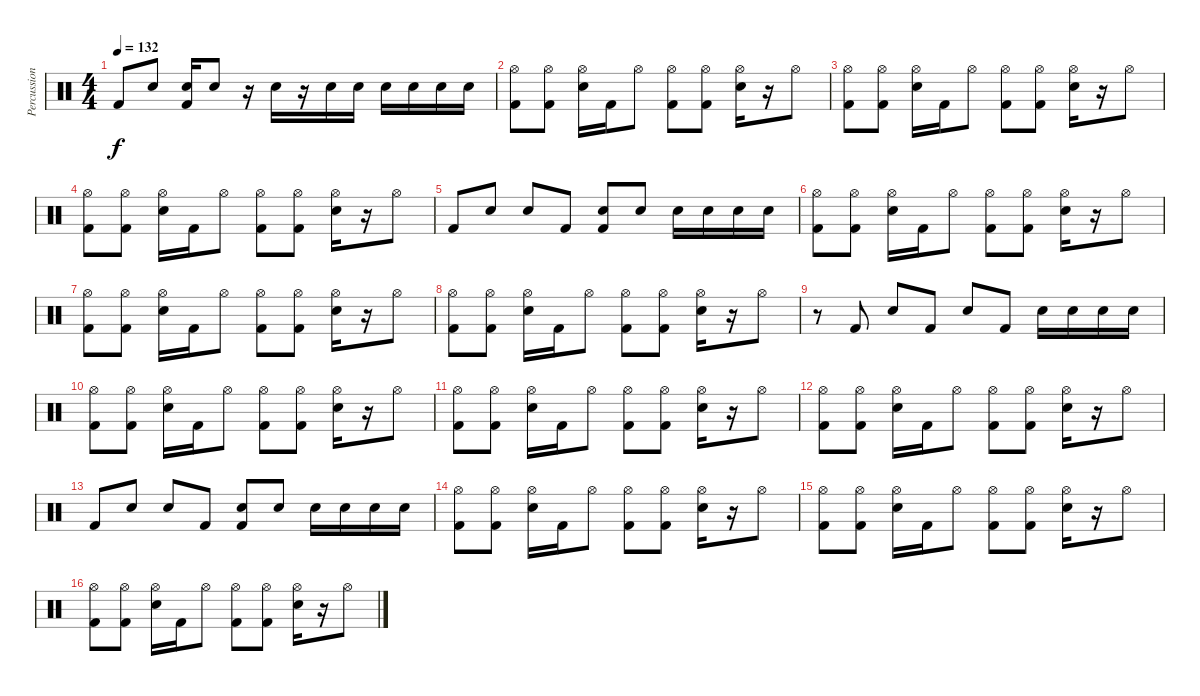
\track ("Percussion" "Percussion") {instrument percussion}
\staff {score}
\articulation defaults
\ts (4 4)
\tempo 132
\clef neutral
\ks c "Kick (hit) 2".8{dy f} "Snare (hit) 2".8
("Snare (hit) 2" "Kick (hit) 2").16 "Snare (hit) 2".8 r.16 "Snare (hit) 2".16 r.16 "Snare (hit) 2".16 "Snare (hit) 2".16 "Snare (hit) 2".16 "Snare (hit) 2".16 "Snare (hit) 2".16 "Snare (hit) 2".16 |
("Hi-Hat (open)" "Kick (hit) 2").8 ("Hi-Hat (open)" "Kick (hit) 2").8 ("Hi-Hat (open)" "Snare (hit) 2").16 "Kick (hit) 2".16 "Hi-Hat (open)".8 ("Hi-Hat (open)" "Kick (hit) 2").8 ("Hi-Hat (open)" "Kick (hit) 2").8 ("Hi-Hat (open)" "Snare (hit) 2").16 r.16 "Hi-Hat (open)".8 |
("Hi-Hat (open)" "Kick (hit) 2").8 ("Hi-Hat (open)" "Kick (hit) 2").8 ("Hi-Hat (open)" "Snare (hit) 2").16 "Kick (hit) 2".16 "Hi-Hat (open)".8 ("Hi-Hat (open)" "Kick (hit) 2").8 ("Hi-Hat (open)" "Kick (hit) 2").8 ("Hi-Hat (open)" "Snare (hit) 2").16 r.16 "Hi-Hat (open)".8 |
("Hi-Hat (open)" "Kick (hit) 2").8 ("Hi-Hat (open)" "Kick (hit) 2").8 ("Hi-Hat (open)" "Snare (hit) 2").16 "Kick (hit) 2".16 "Hi-Hat (open)".8 ("Hi-Hat (open)" "Kick (hit) 2").8 ("Hi-Hat (open)" "Kick (hit) 2").8 ("Hi-Hat (open)" "Snare (hit) 2").16 r.16 "Hi-Hat (open)".8 |
"Kick (hit) 2".8 "Snare (hit) 2".8 "Snare (hit) 2".8 "Kick (hit) 2".8 ("Snare (hit) 2" "Kick (hit) 2").8 "Snare (hit) 2".8 "Snare (hit) 2".16 "Snare (hit) 2".16 "Snare (hit) 2".16 "Snare (hit) 2".16 |
("Hi-Hat (open)" "Kick (hit) 2").8 ("Hi-Hat (open)" "Kick (hit) 2").8 ("Hi-Hat (open)" "Snare (hit) 2").16 "Kick (hit) 2".16 "Hi-Hat (open)".8 ("Hi-Hat (open)" "Kick (hit) 2").8 ("Hi-Hat (open)" "Kick (hit) 2").8 ("Hi-Hat (open)" "Snare (hit) 2").16 r.16 "Hi-Hat (open)".8 |
("Hi-Hat (open)" "Kick (hit) 2").8 ("Hi-Hat (open)" "Kick (hit) 2").8 ("Hi-Hat (open)" "Snare (hit) 2").16 "Kick (hit) 2".16 "Hi-Hat (open)".8 ("Hi-Hat (open)" "Kick (hit) 2").8 ("Hi-Hat (open)" "Kick (hit) 2").8 ("Hi-Hat (open)" "Snare (hit) 2").16 r.16 "Hi-Hat (open)".8 |
("Hi-Hat (open)" "Kick (hit) 2").8 ("Hi-Hat (open)" "Kick (hit) 2").8 ("Hi-Hat (open)" "Snare (hit) 2").16 "Kick (hit) 2".16 "Hi-Hat (open)".8 ("Hi-Hat (open)" "Kick (hit) 2").8 ("Hi-Hat (open)" "Kick (hit) 2").8 ("Hi-Hat (open)" "Snare (hit) 2").16 r.16 "Hi-Hat (open)".8 |
r.8 "Kick (hit) 2".8 "Snare (hit) 2".8 "Kick (hit) 2".8 "Snare (hit) 2".8 "Kick (hit) 2".8 "Snare (hit) 2".16 "Snare (hit) 2".16 "Snare (hit) 2".16 "Snare (hit) 2".16 |
("Hi-Hat (open)" "Kick (hit) 2").8 ("Hi-Hat (open)" "Kick (hit) 2").8 ("Hi-Hat (open)" "Snare (hit) 2").16 "Kick (hit) 2".16 "Hi-Hat (open)".8 ("Hi-Hat (open)" "Kick (hit) 2").8 ("Hi-Hat (open)" "Kick (hit) 2").8 ("Hi-Hat (open)" "Snare (hit) 2").16 r.16 "Hi-Hat (open)".8 |
("Hi-Hat (open)" "Kick (hit) 2").8 ("Hi-Hat (open)" "Kick (hit) 2").8 ("Hi-Hat (open)" "Snare (hit) 2").16 "Kick (hit) 2".16 "Hi-Hat (open)".8 ("Hi-Hat (open)" "Kick (hit) 2").8 ("Hi-Hat (open)" "Kick (hit) 2").8 ("Hi-Hat (open)" "Snare (hit) 2").16 r.16 "Hi-Hat (open)".8 |
("Hi-Hat (open)" "Kick (hit) 2").8 ("Hi-Hat (open)" "Kick (hit) 2").8 ("Hi-Hat (open)" "Snare (hit) 2").16 "Kick (hit) 2".16 "Hi-Hat (open)".8 ("Hi-Hat (open)" "Kick (hit) 2").8 ("Hi-Hat (open)" "Kick (hit) 2").8 ("Hi-Hat (open)" "Snare (hit) 2").16 r.16 "Hi-Hat (open)".8 |
"Kick (hit) 2".8 "Snare (hit) 2".8 "Snare (hit) 2".8 "Kick (hit) 2".8 ("Snare (hit) 2" "Kick (hit) 2").8 "Snare (hit) 2".8 "Snare (hit) 2".16 "Snare (hit) 2".16 "Snare (hit) 2".16 "Snare (hit) 2".16 |
("Hi-Hat (open)" "Kick (hit) 2").8 ("Hi-Hat (open)" "Kick (hit) 2").8 ("Hi-Hat (open)" "Snare (hit) 2").16 "Kick (hit) 2".16 "Hi-Hat (open)".8 ("Hi-Hat (open)" "Kick (hit) 2").8 ("Hi-Hat (open)" "Kick (hit) 2").8 ("Hi-Hat (open)" "Snare (hit) 2").16 r.16 "Hi-Hat (open)".8 |
("Hi-Hat (open)" "Kick (hit) 2").8 ("Hi-Hat (open)" "Kick (hit) 2").8 ("Hi-Hat (open)" "Snare (hit) 2").16 "Kick (hit) 2".16 "Hi-Hat (open)".8 ("Hi-Hat (open)" "Kick (hit) 2").8 ("Hi-Hat (open)" "Kick (hit) 2").8 ("Hi-Hat (open)" "Snare (hit) 2").16 r.16 "Hi-Hat (open)".8 |
("Hi-Hat (open)" "Kick (hit) 2").8 ("Hi-Hat (open)" "Kick (hit) 2").8 ("Hi-Hat (open)" "Snare (hit) 2").16 "Kick (hit) 2".16 "Hi-Hat (open)".8 ("Hi-Hat (open)" "Kick (hit) 2").8 ("Hi-Hat (open)" "Kick (hit) 2").8 ("Hi-Hat (open)" "Snare (hit) 2").16 r.16 "Hi-Hat (open)".8
